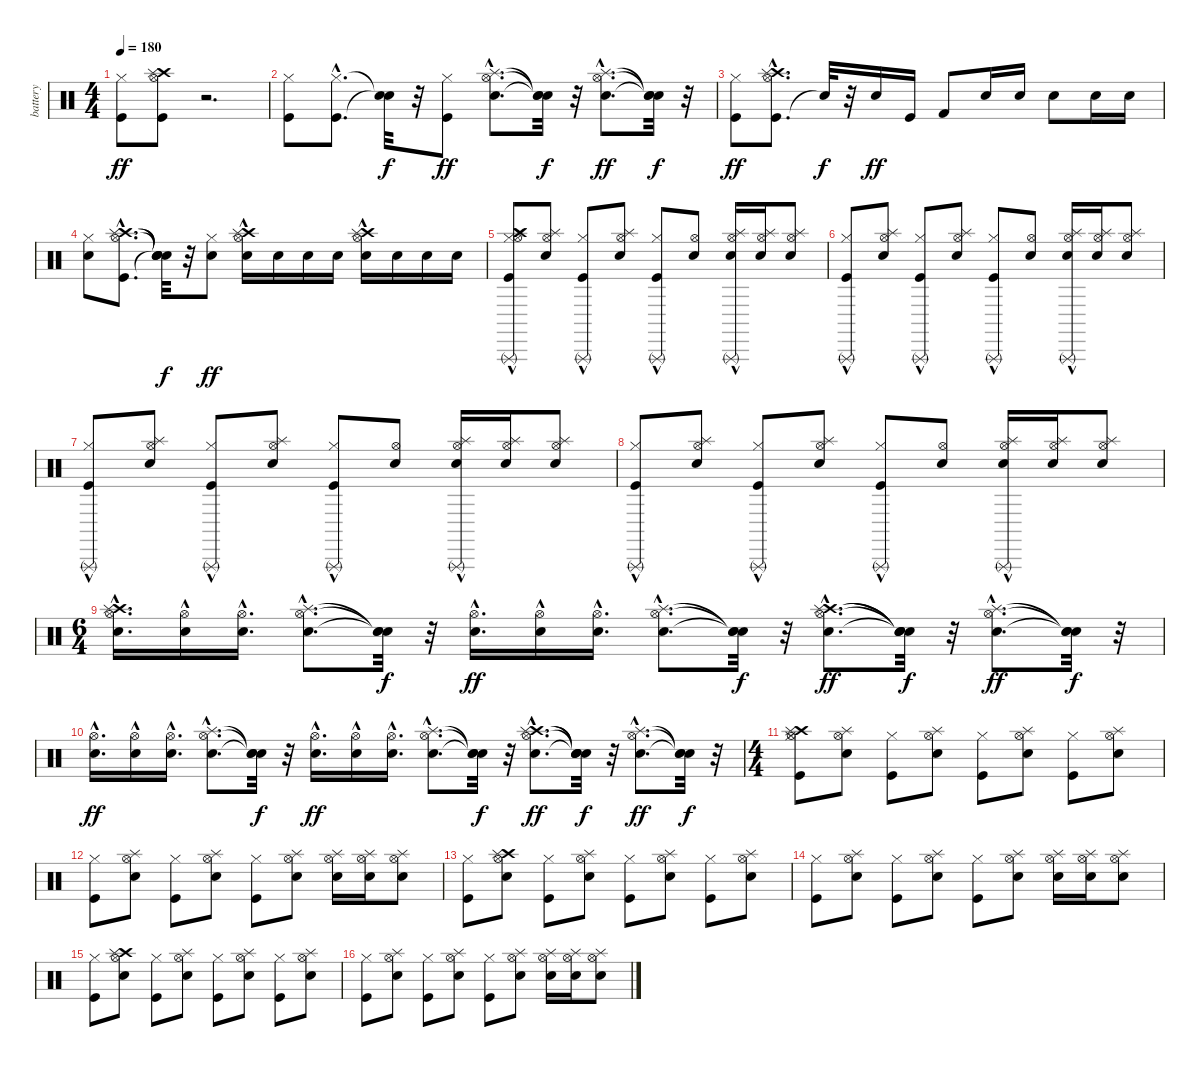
\track ("battery" "battery") {instrument percussion}
\staff {score}
\articulation defaults
\ts (4 4)
\tempo 180
\clef neutral
\ks c
("Kick (hit)" "Hi-Hat (closed)").8{dy ff} ("Kick (hit)" "Hi-Hat (open)" "Crash high (hit)" "Splash (hit)").8 r.2{d} |
("Kick (hit)" "Hi-Hat (closed)").8 ("Kick (hit)"{hac} "Hi-Hat (closed)"{hac}).8{d} ("Snare (hit)"{t} "Snare (hit)"{t}).32{dy f} r.32 ("Kick (hit)" "Hi-Hat (closed)").8{dy ff} ("Electric Snare (hit)"{hac} "Hi-Hat (open)"{hac} "Splash (hit)"{hac}).8{d} ("Snare (hit)"{t} "Snare (hit)"{t} "Snare (hit)"{t}).32{dy f} r.32 ("Electric Snare (hit)"{hac} "Hi-Hat (open)"{hac} "Splash (hit)"{hac}).8{d dy ff} ("Snare (hit)"{t} "Snare (hit)"{t} "Snare (hit)"{t}).32{dy f} r.32 |
("Kick (hit)" "Hi-Hat (closed)").8{dy ff} ("Kick (hit)"{hac} "Hi-Hat (open)" "Crash high (hit)" "Splash (hit)").8{d} "Snare (hit)"{t}.32{dy f} r.32 "Snare (hit) 2".16{dy ff} "Kick (hit)".16 "Kick (hit) 2".8 "Electric Snare (hit)".16 "Electric Snare (hit)".16 "Electric Snare (hit)".8 "Electric Snare (hit)".16 "Electric Snare (hit)".16 |
("Electric Snare (hit)" "Hi-Hat (closed)").8 ("Kick (hit)"{hac} "Hi-Hat (open)"{hac} "Crash high (hit)"{hac} "Splash (hit)"{hac}).8{d} ("Snare (hit)"{t} "Snare (hit)"{t} "Snare (hit)"{t} "Snare (hit)"{t}).32{dy f} r.32 ("Electric Snare (hit)" "Hi-Hat (closed)").8{dy ff} ("Electric Snare (hit)" "Hi-Hat (open)"{hac} "Crash high (hit)"{hac} "Splash (hit)"{hac}).16 "Electric Snare (hit)".16 "Electric Snare (hit)".16 "Electric Snare (hit)".16 ("Electric Snare (hit)" "Hi-Hat (open)"{hac} "Crash high (hit)"{hac} "Splash (hit)"{hac}).16 "Electric Snare (hit)".16 "Electric Snare (hit)".16 "Electric Snare (hit)".16 |
("Kick (hit)" "Hi-Hat (closed)" "Hi-Hat (open)" "Crash high (hit)" "Splash (hit)" "Triangle (rnute)"{hac}).8 ("Electric Snare (hit)" "Hi-Hat (open)" "Splash (hit)").8 ("Kick (hit)" "Hi-Hat (closed)" "Triangle (rnute)"{hac}).8 ("Electric Snare (hit)" "Hi-Hat (open)" "Splash (hit)").8 ("Kick (hit)" "Hi-Hat (closed)" "Triangle (rnute)"{hac}).8 ("Electric Snare (hit)" "Hi-Hat (open)").8 ("Electric Snare (hit)" "Hi-Hat (open)" "Splash (hit)" "Triangle (rnute)"{hac}).16 ("Electric Snare (hit)" "Hi-Hat (open)" "Splash (hit)").16 ("Electric Snare (hit)" "Hi-Hat (open)" "Splash (hit)").8 |
("Kick (hit)" "Hi-Hat (closed)" "Triangle (rnute)"{hac}).8 ("Electric Snare (hit)" "Hi-Hat (open)" "Splash (hit)").8 ("Kick (hit)" "Hi-Hat (closed)" "Triangle (rnute)"{hac}).8 ("Electric Snare (hit)" "Hi-Hat (open)" "Splash (hit)").8 ("Kick (hit)" "Hi-Hat (closed)" "Triangle (rnute)"{hac}).8 ("Electric Snare (hit)" "Hi-Hat (open)").8 ("Electric Snare (hit)" "Hi-Hat (open)" "Splash (hit)" "Triangle (rnute)"{hac}).16 ("Electric Snare (hit)" "Hi-Hat (open)" "Splash (hit)").16 ("Electric Snare (hit)" "Hi-Hat (open)" "Splash (hit)").8 |
("Kick (hit)" "Hi-Hat (closed)" "Triangle (rnute)"{hac}).8 ("Electric Snare (hit)" "Hi-Hat (open)" "Splash (hit)").8 ("Kick (hit)" "Hi-Hat (closed)" "Triangle (rnute)"{hac}).8 ("Electric Snare (hit)" "Hi-Hat (open)" "Splash (hit)").8 ("Kick (hit)" "Hi-Hat (closed)" "Triangle (rnute)"{hac}).8 ("Electric Snare (hit)" "Hi-Hat (open)").8 ("Electric Snare (hit)" "Hi-Hat (open)" "Splash (hit)" "Triangle (rnute)"{hac}).16 ("Electric Snare (hit)" "Hi-Hat (open)" "Splash (hit)").16 ("Electric Snare (hit)" "Hi-Hat (open)" "Splash (hit)").8 |
("Kick (hit)" "Hi-Hat (closed)" "Triangle (rnute)"{hac}).8 ("Electric Snare (hit)" "Hi-Hat (open)" "Splash (hit)").8 ("Kick (hit)" "Hi-Hat (closed)" "Triangle (rnute)"{hac}).8 ("Electric Snare (hit)" "Hi-Hat (open)" "Splash (hit)").8 ("Kick (hit)" "Hi-Hat (closed)" "Triangle (rnute)"{hac}).8 ("Electric Snare (hit)" "Hi-Hat (open)").8 ("Electric Snare (hit)" "Hi-Hat (open)" "Splash (hit)" "Triangle (rnute)"{hac}).16 ("Electric Snare (hit)" "Hi-Hat (open)" "Splash (hit)").16 ("Electric Snare (hit)" "Hi-Hat (open)" "Splash (hit)").8 |
\ts (6 4)
("Electric Snare (hit)"{hac} "Hi-Hat (open)"{hac} "Crash high (hit)"{hac} "Splash (hit)"{hac}).16{d} ("Electric Snare (hit)"{hac} "Hi-Hat (open)"{hac}).16 ("Electric Snare (hit)"{hac} "Hi-Hat (open)"{hac}).16{d} ("Electric Snare (hit)"{hac} "Hi-Hat (open)"{hac} "Splash (hit)"{hac}).8{d} ("Snare (hit)"{t} "Snare (hit)"{t} "Snare (hit)"{t}).32{dy f} r.32 ("Electric Snare (hit)"{hac} "Hi-Hat (open)"{hac}).16{d dy ff} ("Electric Snare (hit)"{hac} "Hi-Hat (open)"{hac}).16 ("Electric Snare (hit)"{hac} "Hi-Hat (open)"{hac}).16{d} ("Electric Snare (hit)"{hac} "Hi-Hat (open)"{hac} "Splash (hit)"{hac}).8{d} ("Snare (hit)"{t} "Snare (hit)"{t} "Snare (hit)"{t}).32{dy f} r.32 ("Electric Snare (hit)"{hac} "Hi-Hat (open)"{hac} "Crash high (hit)"{hac} "Splash (hit)"{hac}).8{d dy ff} ("Snare (hit)"{t} "Snare (hit)"{t} "Snare (hit)"{t} "Snare (hit)"{t}).32{dy f} r.32 ("Electric Snare (hit)"{hac} "Hi-Hat (open)"{hac} "Splash (hit)"{hac}).8{d dy ff} ("Snare (hit)"{t} "Snare (hit)"{t} "Snare (hit)"{t}).32{dy f} r.32 |
("Electric Snare (hit)"{hac} "Hi-Hat (open)"{hac}).16{d dy ff} ("Electric Snare (hit)"{hac} "Hi-Hat (open)"{hac}).16 ("Electric Snare (hit)"{hac} "Hi-Hat (open)"{hac}).16{d} ("Electric Snare (hit)"{hac} "Hi-Hat (open)"{hac} "Splash (hit)"{hac}).8{d} ("Snare (hit)"{t} "Snare (hit)"{t} "Snare (hit)"{t}).32{dy f} r.32 ("Electric Snare (hit)"{hac} "Hi-Hat (open)"{hac}).16{d dy ff} ("Electric Snare (hit)"{hac} "Hi-Hat (open)"{hac}).16 ("Electric Snare (hit)"{hac} "Hi-Hat (open)"{hac}).16{d} ("Electric Snare (hit)"{hac} "Hi-Hat (open)"{hac} "Splash (hit)"{hac}).8{d} ("Snare (hit)"{t} "Snare (hit)"{t} "Snare (hit)"{t}).32{dy f} r.32 ("Electric Snare (hit)"{hac} "Hi-Hat (open)"{hac} "Crash high (hit)"{hac} "Splash (hit)"{hac}).8{d dy ff} ("Snare (hit)"{t} "Snare (hit)"{t} "Snare (hit)"{t} "Snare (hit)"{t}).32{dy f} r.32 ("Electric Snare (hit)"{hac} "Hi-Hat (open)"{hac} "Splash (hit)"{hac}).8{d dy ff} ("Snare (hit)"{t} "Snare (hit)"{t} "Snare (hit)"{t}).32{dy f} r.32 |
\ts (4 4)
("Kick (hit)" "Hi-Hat (closed)" "Hi-Hat (open)" "Crash high (hit)" "Splash (hit)").8 ("Electric Snare (hit)" "Hi-Hat (open)" "Splash (hit)").8 ("Kick (hit)" "Hi-Hat (closed)").8 ("Electric Snare (hit)" "Hi-Hat (open)" "Splash (hit)").8 ("Kick (hit)" "Hi-Hat (closed)").8 ("Electric Snare (hit)" "Hi-Hat (open)" "Splash (hit)").8 ("Kick (hit)" "Hi-Hat (closed)").8 ("Electric Snare (hit)" "Hi-Hat (open)" "Splash (hit)").8 |
("Kick (hit)" "Hi-Hat (closed)").8 ("Electric Snare (hit)" "Hi-Hat (open)" "Splash (hit)").8 ("Kick (hit)" "Hi-Hat (closed)").8 ("Electric Snare (hit)" "Hi-Hat (open)" "Splash (hit)").8 ("Kick (hit)" "Hi-Hat (closed)").8 ("Electric Snare (hit)" "Hi-Hat (open)" "Splash (hit)").8 ("Electric Snare (hit)" "Hi-Hat (open)" "Splash (hit)").16 ("Electric Snare (hit)" "Hi-Hat (open)" "Splash (hit)").16 ("Electric Snare (hit)" "Hi-Hat (open)" "Splash (hit)").8 |
("Kick (hit)" "Hi-Hat (closed)").8 ("Electric Snare (hit)" "Hi-Hat (open)" "Crash high (hit)" "Splash (hit)").8 ("Kick (hit)" "Hi-Hat (closed)").8 ("Electric Snare (hit)" "Hi-Hat (open)" "Splash (hit)").8 ("Kick (hit)" "Hi-Hat (closed)").8 ("Electric Snare (hit)" "Hi-Hat (open)" "Splash (hit)").8 ("Kick (hit)" "Hi-Hat (closed)").8 ("Electric Snare (hit)" "Hi-Hat (open)" "Splash (hit)").8 |
("Kick (hit)" "Hi-Hat (closed)").8 ("Electric Snare (hit)" "Hi-Hat (open)" "Splash (hit)").8 ("Kick (hit)" "Hi-Hat (closed)").8 ("Electric Snare (hit)" "Hi-Hat (open)" "Splash (hit)").8 ("Kick (hit)" "Hi-Hat (closed)").8 ("Electric Snare (hit)" "Hi-Hat (open)" "Splash (hit)").8 ("Electric Snare (hit)" "Hi-Hat (open)" "Splash (hit)").16 ("Electric Snare (hit)" "Hi-Hat (open)" "Splash (hit)").16 ("Electric Snare (hit)" "Hi-Hat (open)" "Splash (hit)").8 |
("Kick (hit)" "Hi-Hat (closed)").8 ("Electric Snare (hit)" "Hi-Hat (open)" "Crash high (hit)" "Splash (hit)").8 ("Kick (hit)" "Hi-Hat (closed)").8 ("Electric Snare (hit)" "Hi-Hat (open)" "Splash (hit)").8 ("Kick (hit)" "Hi-Hat (closed)").8 ("Electric Snare (hit)" "Hi-Hat (open)" "Splash (hit)").8 ("Kick (hit)" "Hi-Hat (closed)").8 ("Electric Snare (hit)" "Hi-Hat (open)" "Splash (hit)").8 |
("Kick (hit)" "Hi-Hat (closed)").8 ("Electric Snare (hit)" "Hi-Hat (open)" "Splash (hit)").8 ("Kick (hit)" "Hi-Hat (closed)").8 ("Electric Snare (hit)" "Hi-Hat (open)" "Splash (hit)").8 ("Kick (hit)" "Hi-Hat (closed)").8 ("Electric Snare (hit)" "Hi-Hat (open)" "Splash (hit)").8 ("Electric Snare (hit)" "Hi-Hat (open)" "Splash (hit)").16 ("Electric Snare (hit)" "Hi-Hat (open)" "Splash (hit)").16 ("Electric Snare (hit)" "Hi-Hat (open)" "Splash (hit)").8
